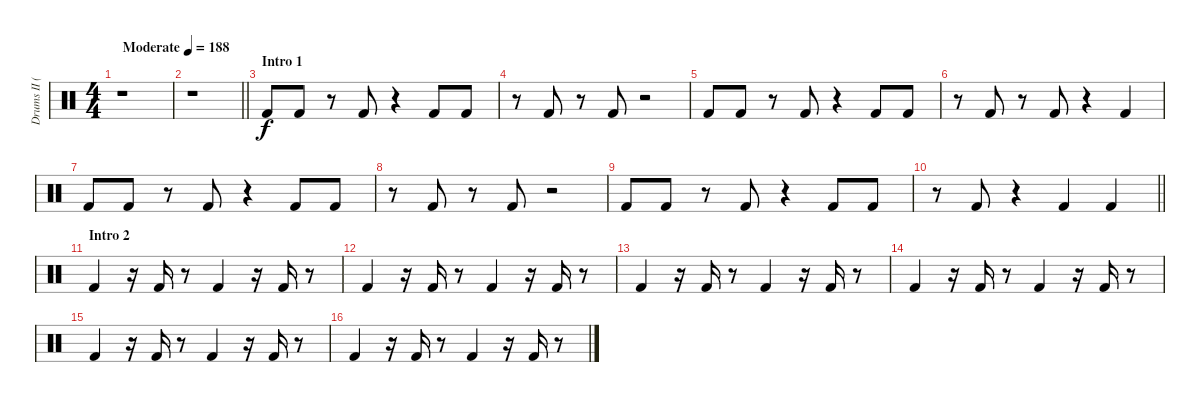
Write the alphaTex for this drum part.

\track ("Drums II (Ruka)" "Drums II (") {instrument percussion}
\staff {score}
\articulation defaults
\ts (4 4)
\tempo (188 "Moderate")
\clef neutral
\ks c
r.1{dy f} |
\barLineRight lightlight
r.1 |
\section ("" "Intro 1")
"Kick (hit) 2".8 "Kick (hit) 2".8 r.8 "Kick (hit) 2".8 r.4 "Kick (hit) 2".8 "Kick (hit) 2".8 |
r.8 "Kick (hit) 2".8 r.8 "Kick (hit) 2".8 r.2 |
"Kick (hit) 2".8 "Kick (hit) 2".8 r.8 "Kick (hit) 2".8 r.4 "Kick (hit) 2".8 "Kick (hit) 2".8 |
r.8 "Kick (hit) 2".8 r.8 "Kick (hit) 2".8 r.4 "Kick (hit) 2".4 |
"Kick (hit) 2".8 "Kick (hit) 2".8 r.8 "Kick (hit) 2".8 r.4 "Kick (hit) 2".8 "Kick (hit) 2".8 |
r.8 "Kick (hit) 2".8 r.8 "Kick (hit) 2".8 r.2 |
"Kick (hit) 2".8 "Kick (hit) 2".8 r.8 "Kick (hit) 2".8 r.4 "Kick (hit) 2".8 "Kick (hit) 2".8 |
\barLineRight lightlight
r.8 "Kick (hit) 2".8 r.4 "Kick (hit) 2".4 "Kick (hit) 2".4 |
\section ("" "Intro 2")
"Kick (hit) 2".4 r.16 "Kick (hit) 2".16 r.8 "Kick (hit) 2".4 r.16 "Kick (hit) 2".16 r.8 |
"Kick (hit) 2".4 r.16 "Kick (hit) 2".16 r.8 "Kick (hit) 2".4 r.16 "Kick (hit) 2".16 r.8 |
"Kick (hit) 2".4 r.16 "Kick (hit) 2".16 r.8 "Kick (hit) 2".4 r.16 "Kick (hit) 2".16 r.8 |
"Kick (hit) 2".4 r.16 "Kick (hit) 2".16 r.8 "Kick (hit) 2".4 r.16 "Kick (hit) 2".16 r.8 |
"Kick (hit) 2".4 r.16 "Kick (hit) 2".16 r.8 "Kick (hit) 2".4 r.16 "Kick (hit) 2".16 r.8 |
"Kick (hit) 2".4 r.16 "Kick (hit) 2".16 r.8 "Kick (hit) 2".4 r.16 "Kick (hit) 2".16 r.8
